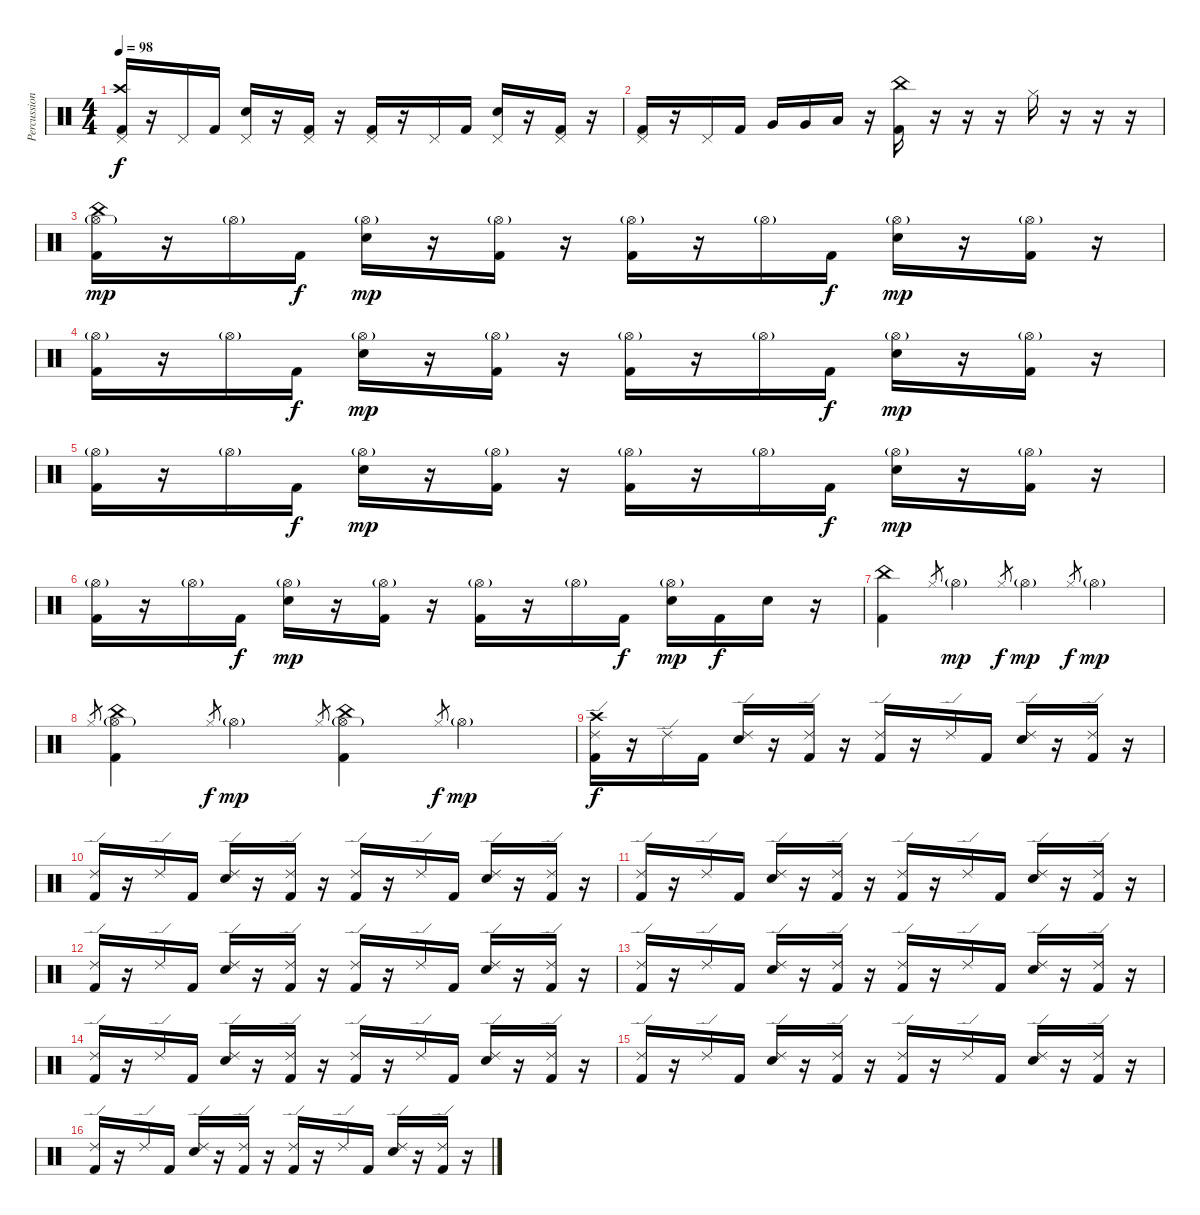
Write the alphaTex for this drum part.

\track ("Percussions" "Percussion") {instrument percussion}
\staff {score}
\articulation defaults
\ts (4 4)
\tempo 98
\clef neutral
\ks c
("Pedal Hi-Hat (hit)" "Crash high (hit)" "Kick (hit) 2").16{dy f} r.16 "Pedal Hi-Hat (hit)".16 "Kick (hit) 2".16 ("Pedal Hi-Hat (hit)" "Snare (hit) 2").16 r.16 ("Pedal Hi-Hat (hit)" "Kick (hit) 2").16 r.16 ("Pedal Hi-Hat (hit)" "Kick (hit) 2").16 r.16 "Pedal Hi-Hat (hit)".16 "Kick (hit) 2".16 ("Pedal Hi-Hat (hit)" "Snare (hit) 2").16 r.16 ("Pedal Hi-Hat (hit)" "Kick (hit) 2").16 r.16 |
("Pedal Hi-Hat (hit)" "Kick (hit) 2").16 r.16 "Pedal Hi-Hat (hit)".16 "Kick (hit) 2".16 "Very Low Tom (hit)".16 "Very Low Tom (hit)".16 "Low Tom (hit)".16 r.16 ("China (hit)" "Kick (hit) 2").16 r.16 r.16 r.16 "Hi-Hat (closed)".16 r.16 r.16 r.16 |
("Hi-Hat (open)"{g} "China (hit)" "Kick (hit) 2").16{dy mp} r.16 "Hi-Hat (open)"{g}.16 "Kick (hit) 2".16{dy f} ("Hi-Hat (open)"{g} "Snare (hit) 2").16{dy mp} r.16 ("Hi-Hat (open)"{g} "Kick (hit) 2").16 r.16 ("Hi-Hat (open)"{g} "Kick (hit) 2").16 r.16 "Hi-Hat (open)"{g}.16 "Kick (hit) 2".16{dy f} ("Hi-Hat (open)"{g} "Snare (hit) 2").16{dy mp} r.16 ("Hi-Hat (open)"{g} "Kick (hit) 2").16 r.16 |
("Hi-Hat (open)"{g} "Kick (hit) 2").16 r.16 "Hi-Hat (open)"{g}.16 "Kick (hit) 2".16{dy f} ("Hi-Hat (open)"{g} "Snare (hit) 2").16{dy mp} r.16 ("Hi-Hat (open)"{g} "Kick (hit) 2").16 r.16 ("Hi-Hat (open)"{g} "Kick (hit) 2").16 r.16 "Hi-Hat (open)"{g}.16 "Kick (hit) 2".16{dy f} ("Hi-Hat (open)"{g} "Snare (hit) 2").16{dy mp} r.16 ("Hi-Hat (open)"{g} "Kick (hit) 2").16 r.16 |
("Hi-Hat (open)"{g} "Kick (hit) 2").16 r.16 "Hi-Hat (open)"{g}.16 "Kick (hit) 2".16{dy f} ("Hi-Hat (open)"{g} "Snare (hit) 2").16{dy mp} r.16 ("Hi-Hat (open)"{g} "Kick (hit) 2").16 r.16 ("Hi-Hat (open)"{g} "Kick (hit) 2").16 r.16 "Hi-Hat (open)"{g}.16 "Kick (hit) 2".16{dy f} ("Hi-Hat (open)"{g} "Snare (hit) 2").16{dy mp} r.16 ("Hi-Hat (open)"{g} "Kick (hit) 2").16 r.16 |
("Hi-Hat (open)"{g} "Kick (hit) 2").16 r.16 "Hi-Hat (open)"{g}.16 "Kick (hit) 2".16{dy f} ("Hi-Hat (open)"{g} "Snare (hit) 2").16{dy mp} r.16 ("Hi-Hat (open)"{g} "Kick (hit) 2").16 r.16 ("Hi-Hat (open)"{g} "Kick (hit) 2").16 r.16 "Hi-Hat (open)"{g}.16 "Kick (hit) 2".16{dy f} ("Hi-Hat (open)"{g} "Snare (hit) 2").16{dy mp} "Kick (hit) 2".16{dy f} "Snare (hit) 2".16 r.16 |
("Kick (hit) 2" "China (hit)").4 "Hi-Hat (closed)".8{gr} "Hi-Hat (open)"{g}.4{dy mp} "Hi-Hat (closed)".8{gr dy f} "Hi-Hat (open)"{g}.4{dy mp} "Hi-Hat (closed)".8{gr dy f} "Hi-Hat (open)"{g}.4{dy mp} |
"Hi-Hat (closed)".8{gr} ("Hi-Hat (open)"{g} "China (hit)" "Kick (hit) 2").4 "Hi-Hat (closed)".8{gr dy f} "Hi-Hat (open)"{g}.4{dy mp} "Hi-Hat (closed)".8{gr} ("Hi-Hat (open)"{g} "China (hit)" "Kick (hit) 2").4 "Hi-Hat (closed)".8{gr dy f} "Hi-Hat (open)"{g}.4{dy mp} |
("Ride (edge) 2" "Crash high (hit)" "Kick (hit) 2").16{dy f} r.16 "Ride (edge) 2".16 "Kick (hit) 2".16 ("Ride (edge) 2" "Snare (hit) 2").16 r.16 ("Ride (edge) 2" "Kick (hit) 2").16 r.16 ("Ride (edge) 2" "Kick (hit) 2").16 r.16 "Ride (edge) 2".16 "Kick (hit) 2".16 ("Ride (edge) 2" "Snare (hit) 2").16 r.16 ("Ride (edge) 2" "Kick (hit) 2").16 r.16 |
("Ride (edge) 2" "Kick (hit) 2").16 r.16 "Ride (edge) 2".16 "Kick (hit) 2".16 ("Ride (edge) 2" "Snare (hit) 2").16 r.16 ("Ride (edge) 2" "Kick (hit) 2").16 r.16 ("Ride (edge) 2" "Kick (hit) 2").16 r.16 "Ride (edge) 2".16 "Kick (hit) 2".16 ("Ride (edge) 2" "Snare (hit) 2").16 r.16 ("Ride (edge) 2" "Kick (hit) 2").16 r.16 |
("Ride (edge) 2" "Kick (hit) 2").16 r.16 "Ride (edge) 2".16 "Kick (hit) 2".16 ("Ride (edge) 2" "Snare (hit) 2").16 r.16 ("Ride (edge) 2" "Kick (hit) 2").16 r.16 ("Ride (edge) 2" "Kick (hit) 2").16 r.16 "Ride (edge) 2".16 "Kick (hit) 2".16 ("Ride (edge) 2" "Snare (hit) 2").16 r.16 ("Ride (edge) 2" "Kick (hit) 2").16 r.16 |
("Ride (edge) 2" "Kick (hit) 2").16 r.16 "Ride (edge) 2".16 "Kick (hit) 2".16 ("Ride (edge) 2" "Snare (hit) 2").16 r.16 ("Ride (edge) 2" "Kick (hit) 2").16 r.16 ("Ride (edge) 2" "Kick (hit) 2").16 r.16 "Ride (edge) 2".16 "Kick (hit) 2".16 ("Ride (edge) 2" "Snare (hit) 2").16 r.16 ("Ride (edge) 2" "Kick (hit) 2").16 r.16 |
("Ride (edge) 2" "Kick (hit) 2").16 r.16 "Ride (edge) 2".16 "Kick (hit) 2".16 ("Ride (edge) 2" "Snare (hit) 2").16 r.16 ("Ride (edge) 2" "Kick (hit) 2").16 r.16 ("Ride (edge) 2" "Kick (hit) 2").16 r.16 "Ride (edge) 2".16 "Kick (hit) 2".16 ("Ride (edge) 2" "Snare (hit) 2").16 r.16 ("Ride (edge) 2" "Kick (hit) 2").16 r.16 |
("Ride (edge) 2" "Kick (hit) 2").16 r.16 "Ride (edge) 2".16 "Kick (hit) 2".16 ("Ride (edge) 2" "Snare (hit) 2").16 r.16 ("Ride (edge) 2" "Kick (hit) 2").16 r.16 ("Ride (edge) 2" "Kick (hit) 2").16 r.16 "Ride (edge) 2".16 "Kick (hit) 2".16 ("Ride (edge) 2" "Snare (hit) 2").16 r.16 ("Ride (edge) 2" "Kick (hit) 2").16 r.16 |
("Ride (edge) 2" "Kick (hit) 2").16 r.16 "Ride (edge) 2".16 "Kick (hit) 2".16 ("Ride (edge) 2" "Snare (hit) 2").16 r.16 ("Ride (edge) 2" "Kick (hit) 2").16 r.16 ("Ride (edge) 2" "Kick (hit) 2").16 r.16 "Ride (edge) 2".16 "Kick (hit) 2".16 ("Ride (edge) 2" "Snare (hit) 2").16 r.16 ("Ride (edge) 2" "Kick (hit) 2").16 r.16 |
("Ride (edge) 2" "Kick (hit) 2").16 r.16 "Ride (edge) 2".16 "Kick (hit) 2".16 ("Ride (edge) 2" "Snare (hit) 2").16 r.16 ("Ride (edge) 2" "Kick (hit) 2").16 r.16 ("Ride (edge) 2" "Kick (hit) 2").16 r.16 "Ride (edge) 2".16 "Kick (hit) 2".16 ("Ride (edge) 2" "Snare (hit) 2").16 r.16 ("Ride (edge) 2" "Kick (hit) 2").16 r.16
